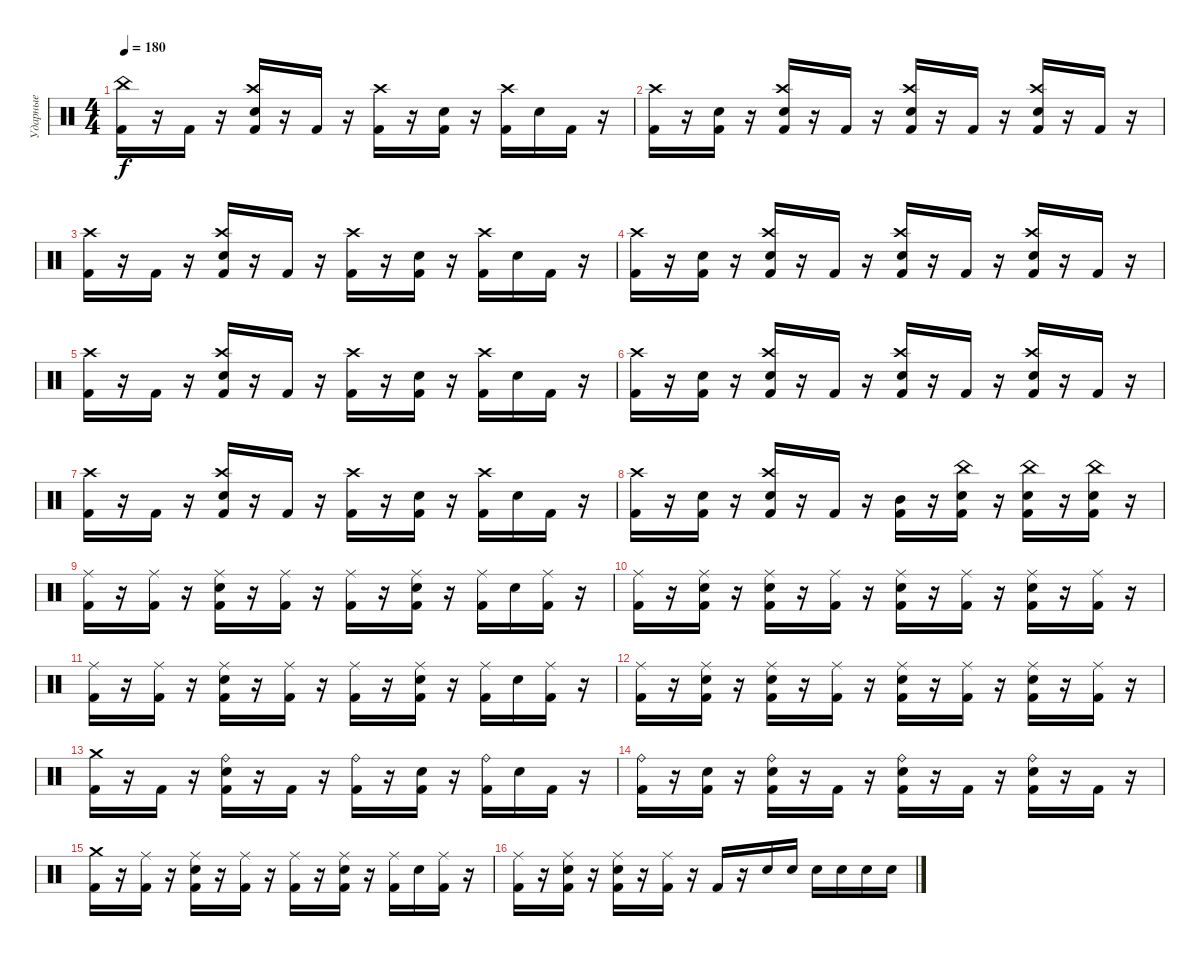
\track ("Ударные" "Ударные") {instrument percussion}
\staff {score}
\articulation defaults
\ts (4 4)
\tempo 180
\clef neutral
\ks c
("China (hit)" "Kick (hit) 2").16{dy f} r.16 "Kick (hit) 2".16 r.16 ("Crash high (hit)" "Electric Snare (hit)" "Kick (hit) 2").16 r.16 "Kick (hit) 2".16 r.16 ("Crash high (hit)" "Kick (hit) 2").16 r.16 ("Electric Snare (hit)" "Kick (hit) 2").16 r.16 ("Crash high (hit)" "Kick (hit) 2").16 "Electric Snare (hit)".16 "Kick (hit) 2".16 r.16 |
("Crash high (hit)" "Kick (hit) 2").16 r.16 ("Electric Snare (hit)" "Kick (hit) 2").16 r.16 ("Crash high (hit)" "Electric Snare (hit)" "Kick (hit) 2").16 r.16 "Kick (hit) 2".16 r.16 ("Crash high (hit)" "Electric Snare (hit)" "Kick (hit) 2").16 r.16 "Kick (hit) 2".16 r.16 ("Crash high (hit)" "Electric Snare (hit)" "Kick (hit) 2").16 r.16 "Kick (hit) 2".16 r.16 |
("Crash high (hit)" "Kick (hit) 2").16 r.16 "Kick (hit) 2".16 r.16 ("Crash high (hit)" "Electric Snare (hit)" "Kick (hit) 2").16 r.16 "Kick (hit) 2".16 r.16 ("Crash high (hit)" "Kick (hit) 2").16 r.16 ("Electric Snare (hit)" "Kick (hit) 2").16 r.16 ("Crash high (hit)" "Kick (hit) 2").16 "Electric Snare (hit)".16 "Kick (hit) 2".16 r.16 |
("Crash high (hit)" "Kick (hit) 2").16 r.16 ("Electric Snare (hit)" "Kick (hit) 2").16 r.16 ("Crash high (hit)" "Electric Snare (hit)" "Kick (hit) 2").16 r.16 "Kick (hit) 2".16 r.16 ("Crash high (hit)" "Electric Snare (hit)" "Kick (hit) 2").16 r.16 "Kick (hit) 2".16 r.16 ("Crash high (hit)" "Electric Snare (hit)" "Kick (hit) 2").16 r.16 "Kick (hit) 2".16 r.16 |
("Crash high (hit)" "Kick (hit) 2").16 r.16 "Kick (hit) 2".16 r.16 ("Crash high (hit)" "Electric Snare (hit)" "Kick (hit) 2").16 r.16 "Kick (hit) 2".16 r.16 ("Crash high (hit)" "Kick (hit) 2").16 r.16 ("Electric Snare (hit)" "Kick (hit) 2").16 r.16 ("Crash high (hit)" "Kick (hit) 2").16 "Electric Snare (hit)".16 "Kick (hit) 2".16 r.16 |
("Crash high (hit)" "Kick (hit) 2").16 r.16 ("Electric Snare (hit)" "Kick (hit) 2").16 r.16 ("Crash high (hit)" "Electric Snare (hit)" "Kick (hit) 2").16 r.16 "Kick (hit) 2".16 r.16 ("Crash high (hit)" "Electric Snare (hit)" "Kick (hit) 2").16 r.16 "Kick (hit) 2".16 r.16 ("Crash high (hit)" "Electric Snare (hit)" "Kick (hit) 2").16 r.16 "Kick (hit) 2".16 r.16 |
("Crash high (hit)" "Kick (hit) 2").16 r.16 "Kick (hit) 2".16 r.16 ("Crash high (hit)" "Electric Snare (hit)" "Kick (hit) 2").16 r.16 "Kick (hit) 2".16 r.16 ("Crash high (hit)" "Kick (hit) 2").16 r.16 ("Electric Snare (hit)" "Kick (hit) 2").16 r.16 ("Crash high (hit)" "Kick (hit) 2").16 "Electric Snare (hit)".16 "Kick (hit) 2".16 r.16 |
("Crash high (hit)" "Kick (hit) 2").16 r.16 ("Electric Snare (hit)" "Kick (hit) 2").16 r.16 ("Crash high (hit)" "Electric Snare (hit)" "Kick (hit) 2").16 r.16 "Kick (hit) 2".16 r.16 ("Mid Tom (hit)" "Kick (hit) 2").16 r.16 ("China (hit)" "Electric Snare (hit)" "Kick (hit) 2").16 r.16 ("China (hit)" "Electric Snare (hit)" "Kick (hit) 2").16 r.16 ("China (hit)" "Electric Snare (hit)" "Kick (hit) 2").16 r.16 |
("Ride (middle)" "Kick (hit) 2").16 r.16 ("Ride (middle)" "Kick (hit) 2").16 r.16 ("Ride (middle)" "Electric Snare (hit)" "Kick (hit) 2").16 r.16 ("Ride (middle)" "Kick (hit) 2").16 r.16 ("Ride (middle)" "Kick (hit) 2").16 r.16 ("Ride (middle)" "Electric Snare (hit)" "Kick (hit) 2").16 r.16 ("Ride (middle)" "Kick (hit) 2").16 "Electric Snare (hit)".16 ("Ride (middle)" "Kick (hit) 2").16 r.16 |
("Ride (middle)" "Kick (hit) 2").16 r.16 ("Ride (middle)" "Electric Snare (hit)" "Kick (hit) 2").16 r.16 ("Ride (middle)" "Electric Snare (hit)" "Kick (hit) 2").16 r.16 ("Ride (middle)" "Kick (hit) 2").16 r.16 ("Ride (middle)" "Electric Snare (hit)" "Kick (hit) 2").16 r.16 ("Ride (middle)" "Kick (hit) 2").16 r.16 ("Ride (middle)" "Electric Snare (hit)" "Kick (hit) 2").16 r.16 ("Ride (middle)" "Kick (hit) 2").16 r.16 |
("Ride (middle)" "Kick (hit) 2").16 r.16 ("Ride (middle)" "Kick (hit) 2").16 r.16 ("Ride (middle)" "Electric Snare (hit)" "Kick (hit) 2").16 r.16 ("Ride (middle)" "Kick (hit) 2").16 r.16 ("Ride (middle)" "Kick (hit) 2").16 r.16 ("Ride (middle)" "Electric Snare (hit)" "Kick (hit) 2").16 r.16 ("Ride (middle)" "Kick (hit) 2").16 "Electric Snare (hit)".16 ("Ride (middle)" "Kick (hit) 2").16 r.16 |
("Ride (middle)" "Kick (hit) 2").16 r.16 ("Ride (middle)" "Electric Snare (hit)" "Kick (hit) 2").16 r.16 ("Ride (middle)" "Electric Snare (hit)" "Kick (hit) 2").16 r.16 ("Ride (middle)" "Kick (hit) 2").16 r.16 ("Ride (middle)" "Electric Snare (hit)" "Kick (hit) 2").16 r.16 ("Ride (middle)" "Kick (hit) 2").16 r.16 ("Ride (middle)" "Electric Snare (hit)" "Kick (hit) 2").16 r.16 ("Ride (middle)" "Kick (hit) 2").16 r.16 |
("Crash medium (hit)" "Kick (hit) 2").16 r.16 "Kick (hit) 2".16 r.16 ("Ride (bell)" "Electric Snare (hit)" "Kick (hit) 2").16 r.16 "Kick (hit) 2".16 r.16 ("Ride (bell)" "Kick (hit) 2").16 r.16 ("Electric Snare (hit)" "Kick (hit) 2").16 r.16 ("Ride (bell)" "Kick (hit) 2").16 "Electric Snare (hit)".16 "Kick (hit) 2".16 r.16 |
("Ride (bell)" "Kick (hit) 2").16 r.16 ("Electric Snare (hit)" "Kick (hit) 2").16 r.16 ("Ride (bell)" "Electric Snare (hit)" "Kick (hit) 2").16 r.16 "Kick (hit) 2".16 r.16 ("Ride (bell)" "Electric Snare (hit)" "Kick (hit) 2").16 r.16 "Kick (hit) 2".16 r.16 ("Ride (bell)" "Electric Snare (hit)" "Kick (hit) 2").16 r.16 "Kick (hit) 2".16 r.16 |
("Crash medium (hit)" "Kick (hit) 2").16 r.16 ("Ride (middle)" "Kick (hit) 2").16 r.16 ("Ride (middle)" "Electric Snare (hit)" "Kick (hit) 2").16 r.16 ("Ride (middle)" "Kick (hit) 2").16 r.16 ("Ride (middle)" "Kick (hit) 2").16 r.16 ("Ride (middle)" "Electric Snare (hit)" "Kick (hit) 2").16 r.16 ("Ride (middle)" "Kick (hit) 2").16 "Electric Snare (hit)".16 ("Ride (middle)" "Kick (hit) 2").16 r.16 |
("Ride (middle)" "Kick (hit) 2").16 r.16 ("Ride (middle)" "Electric Snare (hit)" "Kick (hit) 2").16 r.16 ("Ride (middle)" "Electric Snare (hit)" "Kick (hit) 2").16 r.16 ("Ride (middle)" "Kick (hit) 2").16 r.16 "Kick (hit) 2".16 r.16 "Electric Snare (hit)".16 "Electric Snare (hit)".16 "Electric Snare (hit)".16 "Electric Snare (hit)".16 "Electric Snare (hit)".16 "Electric Snare (hit)".16
